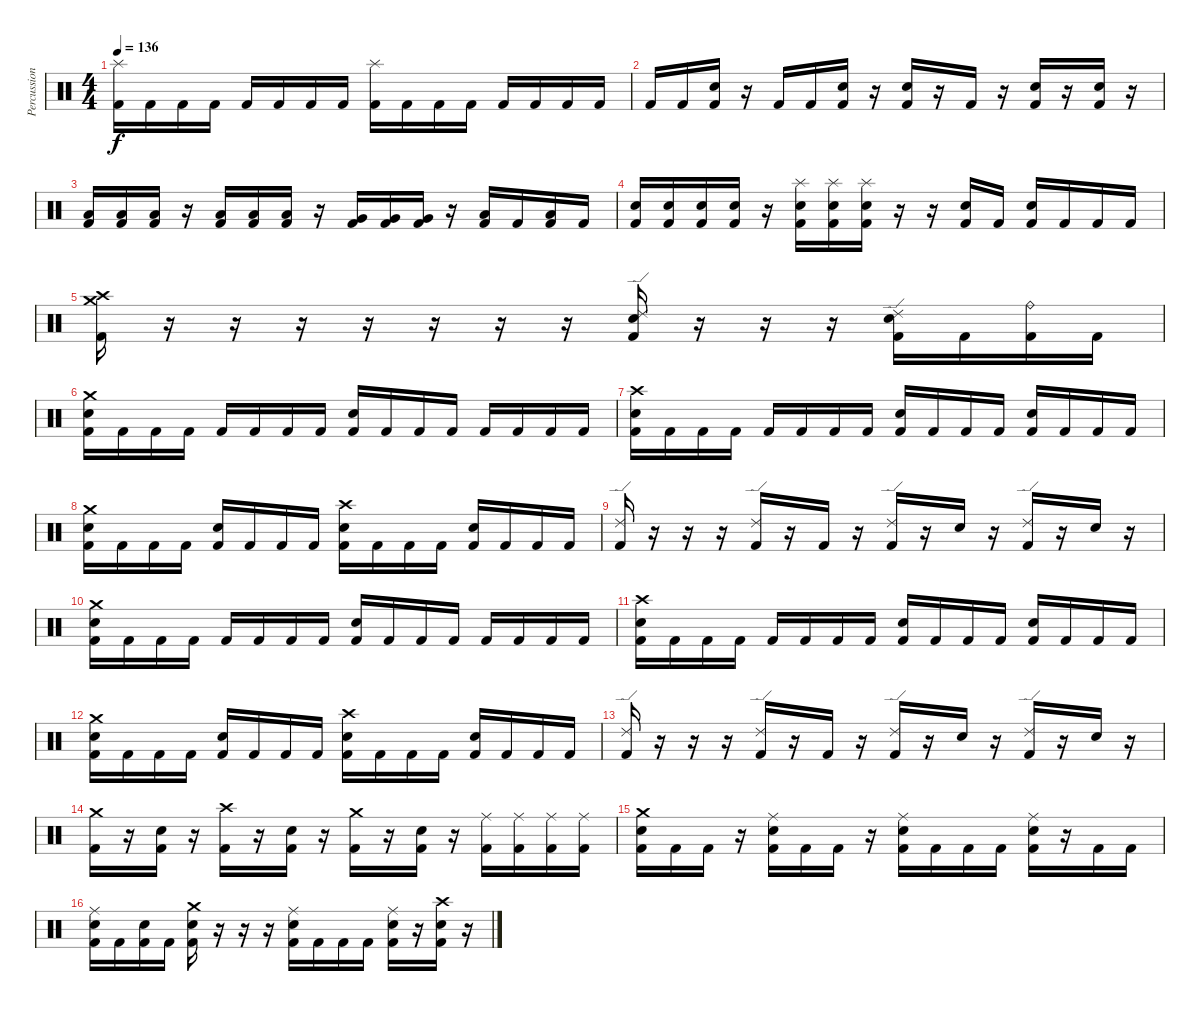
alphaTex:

\track ("Percussion" "Percussion") {instrument percussion}
\staff {score}
\articulation defaults
\ts (4 4)
\tempo 136
\clef neutral
\ks c
("Splash (hit)" "Kick (hit) 2").16{dy f} "Kick (hit) 2".16 "Kick (hit) 2".16 "Kick (hit) 2".16 "Kick (hit) 2".16 "Kick (hit) 2".16 "Kick (hit) 2".16 "Kick (hit) 2".16 ("Splash (hit)" "Kick (hit) 2").16 "Kick (hit) 2".16 "Kick (hit) 2".16 "Kick (hit) 2".16 "Kick (hit) 2".16 "Kick (hit) 2".16 "Kick (hit) 2".16 "Kick (hit) 2".16 |
"Kick (hit) 2".16 "Kick (hit) 2".16 ("Electric Snare (hit)" "Kick (hit) 2").16 r.16 "Kick (hit) 2".16 "Kick (hit) 2".16 ("Electric Snare (hit)" "Kick (hit) 2").16 r.16 ("Electric Snare (hit)" "Kick (hit) 2").16 r.16 "Kick (hit) 2".16 r.16 ("Electric Snare (hit)" "Kick (hit) 2").16 r.16 ("Electric Snare (hit)" "Kick (hit) 2").16 r.16 |
("Low Floor Tom (hit)" "Kick (hit) 2").16 ("Low Floor Tom (hit)" "Kick (hit) 2").16 ("Low Floor Tom (hit)" "Kick (hit) 2").16 r.16 ("Low Tom (hit)" "Kick (hit) 2").16 ("Low Tom (hit)" "Kick (hit) 2").16 ("Low Tom (hit)" "Kick (hit) 2").16 r.16 ("Very Low Tom (hit)" "Kick (hit) 2").16 ("Very Low Tom (hit)" "Kick (hit) 2").16 ("Very Low Tom (hit)" "Kick (hit) 2").16 r.16 ("Low Tom (hit)" "Kick (hit) 2").16 "Kick (hit) 2".16 ("Low Floor Tom (hit)" "Kick (hit) 2").16 "Kick (hit) 2".16 |
("Electric Snare (hit)" "Kick (hit) 2").16 ("Electric Snare (hit)" "Kick (hit) 2").16 ("Electric Snare (hit)" "Kick (hit) 2").16 ("Electric Snare (hit)" "Kick (hit) 2").16 r.16 ("Splash (hit)" "Electric Snare (hit)" "Kick (hit) 2").16 ("Splash (hit)" "Electric Snare (hit)" "Kick (hit) 2").16 ("Splash (hit)" "Electric Snare (hit)" "Kick (hit) 2").16 r.16 r.16 ("Electric Snare (hit)" "Kick (hit) 2").16 "Kick (hit) 2".16 ("Electric Snare (hit)" "Kick (hit) 2").16 "Kick (hit) 2".16 "Kick (hit) 2".16 "Kick (hit) 2".16 |
("Crash medium (hit)" "Crash high (hit)" "Kick (hit) 2").16 r.16 r.16 r.16 r.16 r.16 r.16 r.16 ("Ride (edge) 2" "Electric Snare (hit)" "Kick (hit) 2").16 r.16 r.16 r.16 ("Ride (edge) 2" "Electric Snare (hit)" "Kick (hit) 2").16 "Kick (hit) 2".16 ("Ride (bell)" "Kick (hit) 2").16 "Kick (hit) 2".16 |
("Crash medium (hit)" "Electric Snare (hit)" "Kick (hit) 2").16 "Kick (hit) 2".16 "Kick (hit) 2".16 "Kick (hit) 2".16 "Kick (hit) 2".16 "Kick (hit) 2".16 "Kick (hit) 2".16 "Kick (hit) 2".16 ("Electric Snare (hit)" "Kick (hit) 2").16 "Kick (hit) 2".16 "Kick (hit) 2".16 "Kick (hit) 2".16 "Kick (hit) 2".16 "Kick (hit) 2".16 "Kick (hit) 2".16 "Kick (hit) 2".16 |
("Crash high (hit)" "Electric Snare (hit)" "Kick (hit) 2").16 "Kick (hit) 2".16 "Kick (hit) 2".16 "Kick (hit) 2".16 "Kick (hit) 2".16 "Kick (hit) 2".16 "Kick (hit) 2".16 "Kick (hit) 2".16 ("Electric Snare (hit)" "Kick (hit) 2").16 "Kick (hit) 2".16 "Kick (hit) 2".16 "Kick (hit) 2".16 ("Electric Snare (hit)" "Kick (hit) 2").16 "Kick (hit) 2".16 "Kick (hit) 2".16 "Kick (hit) 2".16 |
("Crash medium (hit)" "Electric Snare (hit)" "Kick (hit) 2").16 "Kick (hit) 2".16 "Kick (hit) 2".16 "Kick (hit) 2".16 ("Electric Snare (hit)" "Kick (hit) 2").16 "Kick (hit) 2".16 "Kick (hit) 2".16 "Kick (hit) 2".16 ("Crash high (hit)" "Electric Snare (hit)" "Kick (hit) 2").16 "Kick (hit) 2".16 "Kick (hit) 2".16 "Kick (hit) 2".16 ("Electric Snare (hit)" "Kick (hit) 2").16 "Kick (hit) 2".16 "Kick (hit) 2".16 "Kick (hit) 2".16 |
("Ride (edge) 2" "Kick (hit) 2").16 r.16 r.16 r.16 ("Ride (edge) 2" "Kick (hit) 2").16 r.16 "Kick (hit) 2".16 r.16 ("Ride (edge) 2" "Kick (hit) 2").16 r.16 "Electric Snare (hit)".16 r.16 ("Ride (edge) 2" "Kick (hit) 2").16 r.16 "Electric Snare (hit)".16 r.16 |
("Crash medium (hit)" "Electric Snare (hit)" "Kick (hit) 2").16 "Kick (hit) 2".16 "Kick (hit) 2".16 "Kick (hit) 2".16 "Kick (hit) 2".16 "Kick (hit) 2".16 "Kick (hit) 2".16 "Kick (hit) 2".16 ("Electric Snare (hit)" "Kick (hit) 2").16 "Kick (hit) 2".16 "Kick (hit) 2".16 "Kick (hit) 2".16 "Kick (hit) 2".16 "Kick (hit) 2".16 "Kick (hit) 2".16 "Kick (hit) 2".16 |
("Crash high (hit)" "Electric Snare (hit)" "Kick (hit) 2").16 "Kick (hit) 2".16 "Kick (hit) 2".16 "Kick (hit) 2".16 "Kick (hit) 2".16 "Kick (hit) 2".16 "Kick (hit) 2".16 "Kick (hit) 2".16 ("Electric Snare (hit)" "Kick (hit) 2").16 "Kick (hit) 2".16 "Kick (hit) 2".16 "Kick (hit) 2".16 ("Electric Snare (hit)" "Kick (hit) 2").16 "Kick (hit) 2".16 "Kick (hit) 2".16 "Kick (hit) 2".16 |
("Crash medium (hit)" "Electric Snare (hit)" "Kick (hit) 2").16 "Kick (hit) 2".16 "Kick (hit) 2".16 "Kick (hit) 2".16 ("Electric Snare (hit)" "Kick (hit) 2").16 "Kick (hit) 2".16 "Kick (hit) 2".16 "Kick (hit) 2".16 ("Crash high (hit)" "Electric Snare (hit)" "Kick (hit) 2").16 "Kick (hit) 2".16 "Kick (hit) 2".16 "Kick (hit) 2".16 ("Electric Snare (hit)" "Kick (hit) 2").16 "Kick (hit) 2".16 "Kick (hit) 2".16 "Kick (hit) 2".16 |
("Ride (edge) 2" "Kick (hit) 2").16 r.16 r.16 r.16 ("Ride (edge) 2" "Kick (hit) 2").16 r.16 "Kick (hit) 2".16 r.16 ("Ride (edge) 2" "Kick (hit) 2").16 r.16 "Electric Snare (hit)".16 r.16 ("Ride (edge) 2" "Kick (hit) 2").16 r.16 "Electric Snare (hit)".16 r.16 |
("Crash medium (hit)" "Kick (hit) 2").16 r.16 ("Electric Snare (hit)" "Kick (hit) 2").16 r.16 ("Crash high (hit)" "Kick (hit) 2").16 r.16 ("Electric Snare (hit)" "Kick (hit) 2").16 r.16 ("Crash medium (hit)" "Kick (hit) 2").16 r.16 ("Electric Snare (hit)" "Kick (hit) 2").16 r.16 ("Ride (middle)" "Kick (hit) 2").16 ("Ride (middle)" "Kick (hit) 2").16 ("Ride (middle)" "Kick (hit) 2").16 ("Ride (middle)" "Kick (hit) 2").16 |
("Crash medium (hit)" "Electric Snare (hit)" "Kick (hit) 2").16 "Kick (hit) 2".16 "Kick (hit) 2".16 r.16 ("Ride (middle)" "Electric Snare (hit)" "Kick (hit) 2").16 "Kick (hit) 2".16 "Kick (hit) 2".16 r.16 ("Ride (middle)" "Electric Snare (hit)" "Kick (hit) 2").16 "Kick (hit) 2".16 "Kick (hit) 2".16 "Kick (hit) 2".16 ("Ride (middle)" "Electric Snare (hit)" "Kick (hit) 2").16 r.16 "Kick (hit) 2".16 "Kick (hit) 2".16 |
("Ride (middle)" "Electric Snare (hit)" "Kick (hit) 2").16 "Kick (hit) 2".16 ("Electric Snare (hit)" "Kick (hit) 2").16 "Kick (hit) 2".16 ("Crash medium (hit)" "Electric Snare (hit)" "Kick (hit) 2").16 r.16 r.16 r.16 ("Ride (middle)" "Electric Snare (hit)" "Kick (hit) 2").16 "Kick (hit) 2".16 "Kick (hit) 2".16 "Kick (hit) 2".16 ("Ride (middle)" "Electric Snare (hit)" "Kick (hit) 2").16 r.16 ("Crash high (hit)" "Electric Snare (hit)" "Kick (hit) 2").16 r.16
